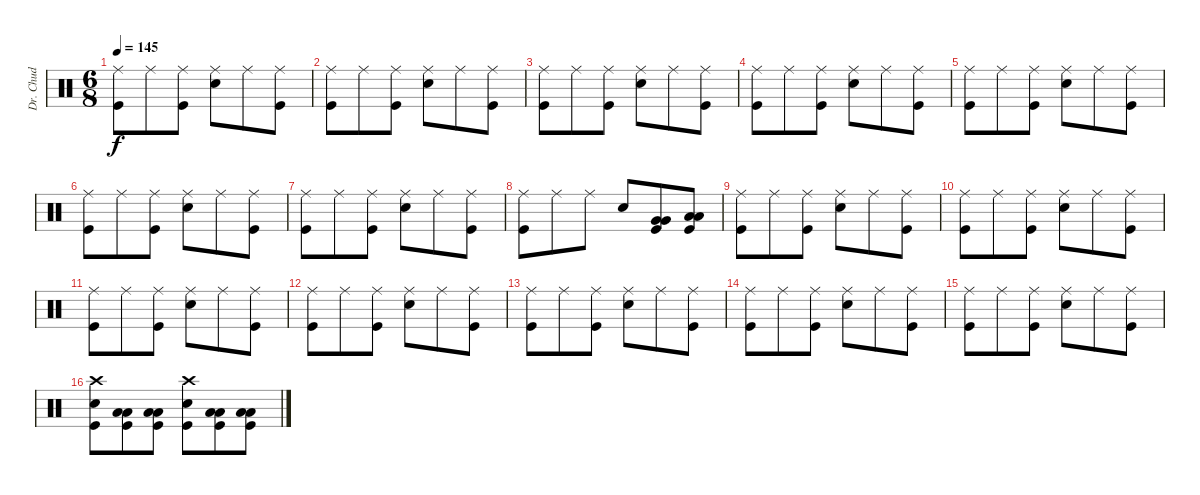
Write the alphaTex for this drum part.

\track ("Dr. Chud" "Dr. Chud") {instrument percussion}
\staff {score}
\articulation defaults
\ts (6 8)
\tempo 145
\clef neutral
\ks c
("Ride (middle)" "Kick (hit)").8{dy f} "Ride (middle)".8 ("Ride (middle)" "Kick (hit)").8 ("Ride (middle)" "Snare (hit) 2").8 "Ride (middle)".8 ("Ride (middle)" "Kick (hit)").8 |
("Ride (middle)" "Kick (hit)").8 "Ride (middle)".8 ("Ride (middle)" "Kick (hit)").8 ("Ride (middle)" "Snare (hit) 2").8 "Ride (middle)".8 ("Ride (middle)" "Kick (hit)").8 |
("Ride (middle)" "Kick (hit)").8 "Ride (middle)".8 ("Ride (middle)" "Kick (hit)").8 ("Ride (middle)" "Snare (hit) 2").8 "Ride (middle)".8 ("Ride (middle)" "Kick (hit)").8 |
("Ride (middle)" "Kick (hit)").8 "Ride (middle)".8 ("Ride (middle)" "Kick (hit)").8 ("Ride (middle)" "Snare (hit) 2").8 "Ride (middle)".8 ("Ride (middle)" "Kick (hit)").8 |
("Ride (middle)" "Kick (hit)").8 "Ride (middle)".8 ("Ride (middle)" "Kick (hit)").8 ("Ride (middle)" "Snare (hit) 2").8 "Ride (middle)".8 ("Ride (middle)" "Kick (hit)").8 |
("Ride (middle)" "Kick (hit)").8 "Ride (middle)".8 ("Ride (middle)" "Kick (hit)").8 ("Ride (middle)" "Snare (hit) 2").8 "Ride (middle)".8 ("Ride (middle)" "Kick (hit)").8 |
("Ride (middle)" "Kick (hit)").8 "Ride (middle)".8 ("Ride (middle)" "Kick (hit)").8 ("Ride (middle)" "Snare (hit) 2").8 "Ride (middle)".8 ("Ride (middle)" "Kick (hit)").8 |
("Ride (middle)" "Kick (hit)").8 "Ride (middle)".8 "Ride (middle)".8 "Snare (hit) 2".8 ("Very Low Tom (hit)" "Very Low Tom (hit)" "Kick (hit)").8 ("Low Floor Tom (hit)" "Low Floor Tom (hit)" "Kick (hit)").8 |
("Ride (middle)" "Kick (hit)").8 "Ride (middle)".8 ("Ride (middle)" "Kick (hit)").8 ("Ride (middle)" "Snare (hit) 2").8 "Ride (middle)".8 ("Ride (middle)" "Kick (hit)").8 |
("Ride (middle)" "Kick (hit)").8 "Ride (middle)".8 ("Ride (middle)" "Kick (hit)").8 ("Ride (middle)" "Snare (hit) 2").8 "Ride (middle)".8 ("Ride (middle)" "Kick (hit)").8 |
("Ride (middle)" "Kick (hit)").8 "Ride (middle)".8 ("Ride (middle)" "Kick (hit)").8 ("Ride (middle)" "Snare (hit) 2").8 "Ride (middle)".8 ("Ride (middle)" "Kick (hit)").8 |
("Ride (middle)" "Kick (hit)").8 "Ride (middle)".8 ("Ride (middle)" "Kick (hit)").8 ("Ride (middle)" "Snare (hit) 2").8 "Ride (middle)".8 ("Ride (middle)" "Kick (hit)").8 |
("Ride (middle)" "Kick (hit)").8 "Ride (middle)".8 ("Ride (middle)" "Kick (hit)").8 ("Ride (middle)" "Snare (hit) 2").8 "Ride (middle)".8 ("Ride (middle)" "Kick (hit)").8 |
("Ride (middle)" "Kick (hit)").8 "Ride (middle)".8 ("Ride (middle)" "Kick (hit)").8 ("Ride (middle)" "Snare (hit) 2").8 "Ride (middle)".8 ("Ride (middle)" "Kick (hit)").8 |
("Ride (middle)" "Kick (hit)").8 "Ride (middle)".8 ("Ride (middle)" "Kick (hit)").8 ("Ride (middle)" "Snare (hit) 2").8 "Ride (middle)".8 ("Ride (middle)" "Kick (hit)").8 |
("Crash high (hit)" "Snare (hit) 2" "Kick (hit)").8 ("Low Tom (hit)" "Low Tom (hit)" "Kick (hit)").8 ("Low Floor Tom (hit)" "Low Floor Tom (hit)" "Kick (hit)").8 ("Crash high (hit)" "Snare (hit) 2" "Kick (hit)").8 ("Low Tom (hit)" "Low Tom (hit)" "Kick (hit)").8 ("Low Floor Tom (hit)" "Low Floor Tom (hit)" "Kick (hit)").8
